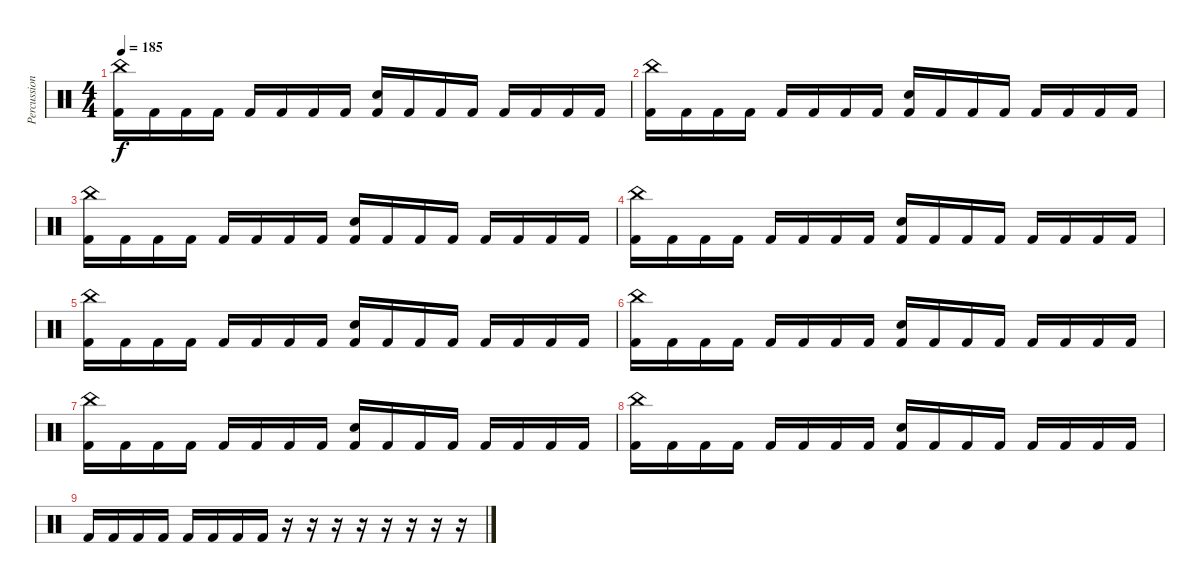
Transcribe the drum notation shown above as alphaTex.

\track ("Percussion" "Percussion") {instrument percussion}
\staff {score}
\articulation defaults
\ts (4 4)
\tempo 185
\clef neutral
\ks c
("China (hit)" "Kick (hit) 2").16{dy f} "Kick (hit) 2".16 "Kick (hit) 2".16 "Kick (hit) 2".16 "Kick (hit) 2".16 "Kick (hit) 2".16 "Kick (hit) 2".16 "Kick (hit) 2".16 ("Electric Snare (hit)" "Kick (hit) 2").16 "Kick (hit) 2".16 "Kick (hit) 2".16 "Kick (hit) 2".16 "Kick (hit) 2".16 "Kick (hit) 2".16 "Kick (hit) 2".16 "Kick (hit) 2".16 |
("China (hit)" "Kick (hit) 2").16 "Kick (hit) 2".16 "Kick (hit) 2".16 "Kick (hit) 2".16 "Kick (hit) 2".16 "Kick (hit) 2".16 "Kick (hit) 2".16 "Kick (hit) 2".16 ("Electric Snare (hit)" "Kick (hit) 2").16 "Kick (hit) 2".16 "Kick (hit) 2".16 "Kick (hit) 2".16 "Kick (hit) 2".16 "Kick (hit) 2".16 "Kick (hit) 2".16 "Kick (hit) 2".16 |
("China (hit)" "Kick (hit) 2").16 "Kick (hit) 2".16 "Kick (hit) 2".16 "Kick (hit) 2".16 "Kick (hit) 2".16 "Kick (hit) 2".16 "Kick (hit) 2".16 "Kick (hit) 2".16 ("Electric Snare (hit)" "Kick (hit) 2").16 "Kick (hit) 2".16 "Kick (hit) 2".16 "Kick (hit) 2".16 "Kick (hit) 2".16 "Kick (hit) 2".16 "Kick (hit) 2".16 "Kick (hit) 2".16 |
("China (hit)" "Kick (hit) 2").16 "Kick (hit) 2".16 "Kick (hit) 2".16 "Kick (hit) 2".16 "Kick (hit) 2".16 "Kick (hit) 2".16 "Kick (hit) 2".16 "Kick (hit) 2".16 ("Electric Snare (hit)" "Kick (hit) 2").16 "Kick (hit) 2".16 "Kick (hit) 2".16 "Kick (hit) 2".16 "Kick (hit) 2".16 "Kick (hit) 2".16 "Kick (hit) 2".16 "Kick (hit) 2".16 |
("China (hit)" "Kick (hit) 2").16 "Kick (hit) 2".16 "Kick (hit) 2".16 "Kick (hit) 2".16 "Kick (hit) 2".16 "Kick (hit) 2".16 "Kick (hit) 2".16 "Kick (hit) 2".16 ("Electric Snare (hit)" "Kick (hit) 2").16 "Kick (hit) 2".16 "Kick (hit) 2".16 "Kick (hit) 2".16 "Kick (hit) 2".16 "Kick (hit) 2".16 "Kick (hit) 2".16 "Kick (hit) 2".16 |
("China (hit)" "Kick (hit) 2").16 "Kick (hit) 2".16 "Kick (hit) 2".16 "Kick (hit) 2".16 "Kick (hit) 2".16 "Kick (hit) 2".16 "Kick (hit) 2".16 "Kick (hit) 2".16 ("Electric Snare (hit)" "Kick (hit) 2").16 "Kick (hit) 2".16 "Kick (hit) 2".16 "Kick (hit) 2".16 "Kick (hit) 2".16 "Kick (hit) 2".16 "Kick (hit) 2".16 "Kick (hit) 2".16 |
("China (hit)" "Kick (hit) 2").16 "Kick (hit) 2".16 "Kick (hit) 2".16 "Kick (hit) 2".16 "Kick (hit) 2".16 "Kick (hit) 2".16 "Kick (hit) 2".16 "Kick (hit) 2".16 ("Electric Snare (hit)" "Kick (hit) 2").16 "Kick (hit) 2".16 "Kick (hit) 2".16 "Kick (hit) 2".16 "Kick (hit) 2".16 "Kick (hit) 2".16 "Kick (hit) 2".16 "Kick (hit) 2".16 |
("China (hit)" "Kick (hit) 2").16 "Kick (hit) 2".16 "Kick (hit) 2".16 "Kick (hit) 2".16 "Kick (hit) 2".16 "Kick (hit) 2".16 "Kick (hit) 2".16 "Kick (hit) 2".16 ("Electric Snare (hit)" "Kick (hit) 2").16 "Kick (hit) 2".16 "Kick (hit) 2".16 "Kick (hit) 2".16 "Kick (hit) 2".16 "Kick (hit) 2".16 "Kick (hit) 2".16 "Kick (hit) 2".16 |
"Kick (hit) 2".16 "Kick (hit) 2".16 "Kick (hit) 2".16 "Kick (hit) 2".16 "Kick (hit) 2".16 "Kick (hit) 2".16 "Kick (hit) 2".16 "Kick (hit) 2".16 r.16 r.16 r.16 r.16 r.16 r.16 r.16 r.16
